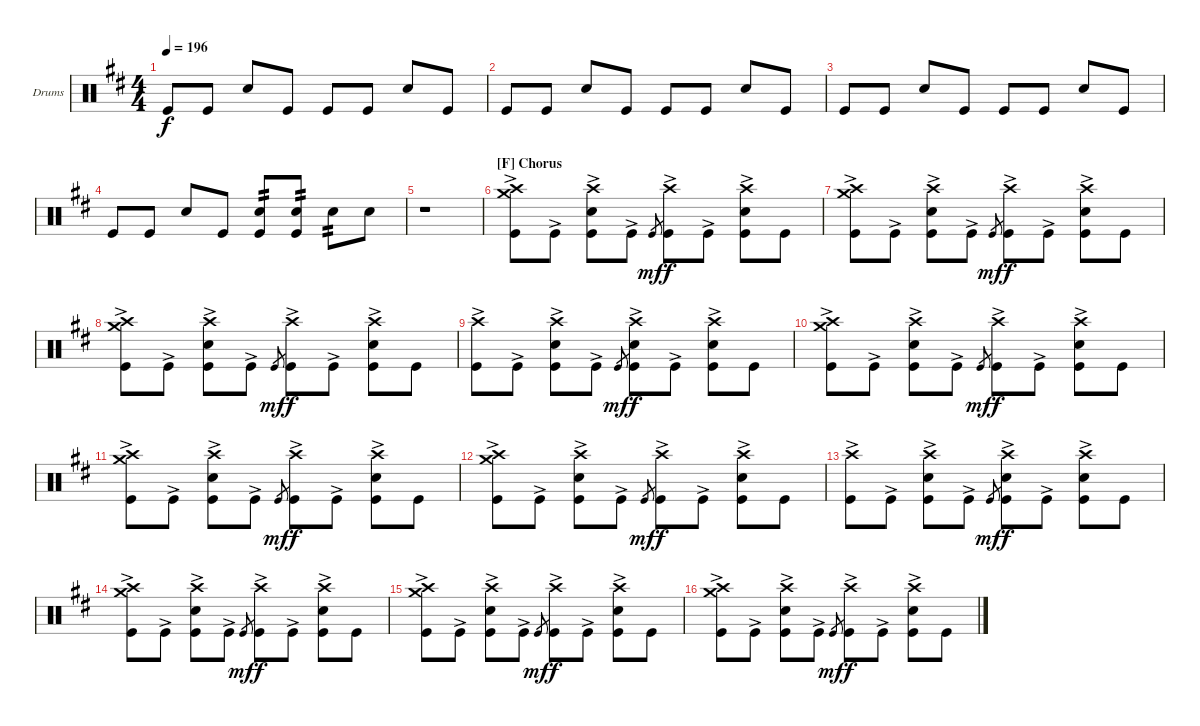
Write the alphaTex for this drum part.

\defaultSystemsLayout 4
\bracketExtendMode groupsimilarinstruments
\firstSystemTrackNameOrientation horizontal
\otherSystemsTrackNameOrientation horizontal
\track ("Drumkit" "Drums") {instrument percussion}
\staff {score}
\articulation defaults
\ts (4 4)
\tempo 196
\clef neutral
\ks d "Kick (hit)".8{dy f} "Kick (hit)".8 "Snare (hit) 2".8 "Kick (hit)".8 "Kick (hit)".8 "Kick (hit)".8 "Snare (hit) 2".8 "Kick (hit)".8
|
"Kick (hit)".8 "Kick (hit)".8 "Snare (hit) 2".8 "Kick (hit)".8 "Kick (hit)".8 "Kick (hit)".8 "Snare (hit) 2".8 "Kick (hit)".8 |
"Kick (hit)".8 "Kick (hit)".8 "Snare (hit) 2".8 "Kick (hit)".8 "Kick (hit)".8 "Kick (hit)".8 "Snare (hit) 2".8 "Kick (hit)".8 |
"Kick (hit)".8 "Kick (hit)".8 "Snare (hit) 2".8 "Kick (hit)".8 ("Snare (hit) 2" "Kick (hit)").8{tp 2} ("Snare (hit) 2" "Kick (hit)").8{tp 2} "Snare (hit) 2".8{tp 2} "Snare (hit) 2".8 |
r.1 |
\section ("F" "Chorus")
("Crash medium (hit)" "Crash high (hit)" "Kick (hit)"{ac}).8 "Kick (hit)"{ac}.8 ("Crash high (hit)" "Snare (hit) 2" "Kick (hit)"{ac}).8 "Kick (hit)"{ac}.8 "Kick (hit)".8{gr dy mf} ("Crash high (hit)" "Kick (hit)"{ac}).8{dy f} "Kick (hit)"{ac}.8 ("Crash high (hit)" "Snare (hit) 2" "Kick (hit)"{ac}).8 "Kick (hit)".8 |
("Crash medium (hit)" "Crash high (hit)" "Kick (hit)"{ac}).8 "Kick (hit)"{ac}.8 ("Crash high (hit)" "Snare (hit) 2" "Kick (hit)"{ac}).8 "Kick (hit)"{ac}.8 "Kick (hit)".8{gr dy mf} ("Crash high (hit)" "Kick (hit)"{ac}).8{dy f} "Kick (hit)"{ac}.8 ("Crash high (hit)" "Snare (hit) 2" "Kick (hit)"{ac}).8 "Kick (hit)".8 |
("Crash medium (hit)" "Crash high (hit)" "Kick (hit)"{ac}).8 "Kick (hit)"{ac}.8 ("Crash high (hit)" "Snare (hit) 2" "Kick (hit)"{ac}).8 "Kick (hit)"{ac}.8 "Kick (hit)".8{gr dy mf} ("Crash high (hit)" "Kick (hit)"{ac}).8{dy f} "Kick (hit)"{ac}.8 ("Crash high (hit)" "Snare (hit) 2" "Kick (hit)"{ac}).8 "Kick (hit)".8 |
("Crash high (hit)" "Kick (hit)"{ac}).8 "Kick (hit)"{ac}.8 ("Crash high (hit)" "Snare (hit) 2" "Kick (hit)"{ac}).8 "Kick (hit)"{ac}.8 "Kick (hit)".8{gr dy mf} ("Crash high (hit)" "Snare (hit) 2" "Kick (hit)"{ac}).8{dy f} "Kick (hit)"{ac}.8 ("Crash high (hit)" "Snare (hit) 2" "Kick (hit)"{ac}).8 "Kick (hit)".8 |
("Crash medium (hit)" "Crash high (hit)" "Kick (hit)"{ac}).8 "Kick (hit)"{ac}.8 ("Crash high (hit)" "Snare (hit) 2" "Kick (hit)"{ac}).8 "Kick (hit)"{ac}.8 "Kick (hit)".8{gr dy mf} ("Crash high (hit)" "Kick (hit)"{ac}).8{dy f} "Kick (hit)"{ac}.8 ("Crash high (hit)" "Snare (hit) 2" "Kick (hit)"{ac}).8 "Kick (hit)".8 |
("Crash medium (hit)" "Crash high (hit)" "Kick (hit)"{ac}).8 "Kick (hit)"{ac}.8 ("Crash high (hit)" "Snare (hit) 2" "Kick (hit)"{ac}).8 "Kick (hit)"{ac}.8 "Kick (hit)".8{gr dy mf} ("Crash high (hit)" "Kick (hit)"{ac}).8{dy f} "Kick (hit)"{ac}.8 ("Crash high (hit)" "Snare (hit) 2" "Kick (hit)"{ac}).8 "Kick (hit)".8 |
("Crash medium (hit)" "Crash high (hit)" "Kick (hit)"{ac}).8 "Kick (hit)"{ac}.8 ("Crash high (hit)" "Snare (hit) 2" "Kick (hit)"{ac}).8 "Kick (hit)"{ac}.8 "Kick (hit)".8{gr dy mf} ("Crash high (hit)" "Kick (hit)"{ac}).8{dy f} "Kick (hit)"{ac}.8 ("Crash high (hit)" "Snare (hit) 2" "Kick (hit)"{ac}).8 "Kick (hit)".8 |
("Crash high (hit)" "Kick (hit)"{ac}).8 "Kick (hit)"{ac}.8 ("Crash high (hit)" "Snare (hit) 2" "Kick (hit)"{ac}).8 "Kick (hit)"{ac}.8 "Kick (hit)".8{gr dy mf} ("Crash high (hit)" "Snare (hit) 2" "Kick (hit)"{ac}).8{dy f} "Kick (hit)"{ac}.8 ("Crash high (hit)" "Snare (hit) 2" "Kick (hit)"{ac}).8 "Kick (hit)".8 |
("Crash medium (hit)" "Crash high (hit)" "Kick (hit)"{ac}).8 "Kick (hit)"{ac}.8 ("Crash high (hit)" "Snare (hit) 2" "Kick (hit)"{ac}).8 "Kick (hit)"{ac}.8 "Kick (hit)".8{gr dy mf} ("Crash high (hit)" "Kick (hit)"{ac}).8{dy f} "Kick (hit)"{ac}.8 ("Crash high (hit)" "Snare (hit) 2" "Kick (hit)"{ac}).8 "Kick (hit)".8 |
("Crash medium (hit)" "Crash high (hit)" "Kick (hit)"{ac}).8 "Kick (hit)"{ac}.8 ("Crash high (hit)" "Snare (hit) 2" "Kick (hit)"{ac}).8 "Kick (hit)"{ac}.8 "Kick (hit)".8{gr dy mf} ("Crash high (hit)" "Kick (hit)"{ac}).8{dy f} "Kick (hit)"{ac}.8 ("Crash high (hit)" "Snare (hit) 2" "Kick (hit)"{ac}).8 "Kick (hit)".8 |
("Crash medium (hit)" "Crash high (hit)" "Kick (hit)"{ac}).8 "Kick (hit)"{ac}.8 ("Crash high (hit)" "Snare (hit) 2" "Kick (hit)"{ac}).8 "Kick (hit)"{ac}.8 "Kick (hit)".8{gr dy mf} ("Crash high (hit)" "Kick (hit)"{ac}).8{dy f} "Kick (hit)"{ac}.8 ("Crash high (hit)" "Snare (hit) 2" "Kick (hit)"{ac}).8 "Kick (hit)".8
